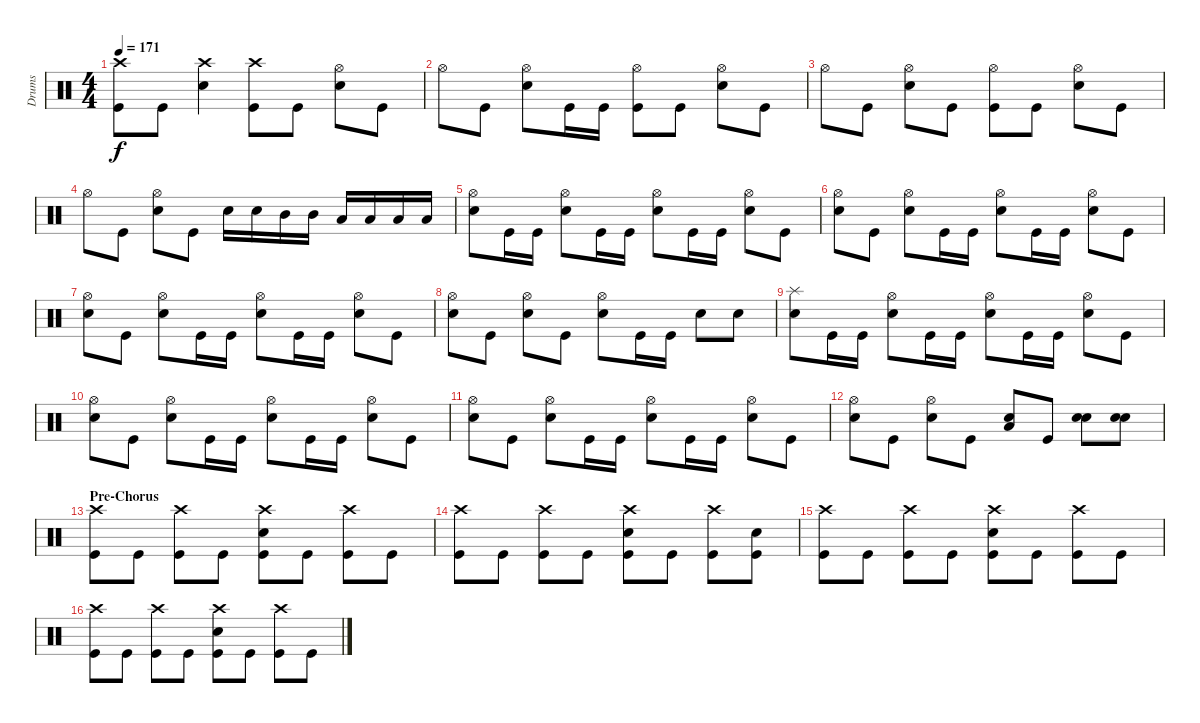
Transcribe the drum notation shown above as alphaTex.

\track ("Drums" "Drums") {instrument percussion}
\staff {score}
\articulation defaults
\ts (4 4)
\tempo 171
\clef neutral
\ks c
("Crash high (hit)" "Kick (hit)").8{dy f} "Kick (hit)".8 ("Crash high (hit)" "Snare (hit) 2").4 ("Crash high (hit)" "Kick (hit)").8 "Kick (hit)".8 ("Hi-Hat (open)" "Snare (hit) 2").8 "Kick (hit)".8 |
"Hi-Hat (open)".8 "Kick (hit)".8 ("Hi-Hat (open)" "Snare (hit) 2").8 "Kick (hit)".16 "Kick (hit)".16 ("Hi-Hat (open)" "Kick (hit)").8 "Kick (hit)".8 ("Hi-Hat (open)" "Snare (hit) 2").8 "Kick (hit)".8 |
"Hi-Hat (open)".8 "Kick (hit)".8 ("Hi-Hat (open)" "Snare (hit) 2").8 "Kick (hit)".8 ("Hi-Hat (open)" "Kick (hit)").8 "Kick (hit)".8 ("Hi-Hat (open)" "Snare (hit) 2").8 "Kick (hit)".8 |
"Hi-Hat (open)".8 "Kick (hit)".8 ("Hi-Hat (open)" "Snare (hit) 2").8 "Kick (hit)".8 "Snare (hit) 2".16 "Snare (hit) 2".16 "Mid Tom (hit)".16 "Mid Tom (hit)".16 "Low Tom (hit)".16 "Low Tom (hit)".16 "Low Floor Tom (hit)".16 "Low Floor Tom (hit)".16 |
("Hi-Hat (open)" "Snare (hit) 2").8 "Kick (hit)".16 "Kick (hit)".16 ("Hi-Hat (open)" "Snare (hit) 2").8 "Kick (hit)".16 "Kick (hit)".16 ("Hi-Hat (open)" "Snare (hit) 2").8 "Kick (hit)".16 "Kick (hit)".16 ("Hi-Hat (open)" "Snare (hit) 2").8 "Kick (hit)".8 |
("Hi-Hat (open)" "Snare (hit) 2").8 "Kick (hit)".8 ("Hi-Hat (open)" "Snare (hit) 2").8 "Kick (hit)".16 "Kick (hit)".16 ("Hi-Hat (open)" "Snare (hit) 2").8 "Kick (hit)".16 "Kick (hit)".16 ("Hi-Hat (open)" "Snare (hit) 2").8 "Kick (hit)".8 |
("Hi-Hat (open)" "Snare (hit) 2").8 "Kick (hit)".8 ("Hi-Hat (open)" "Snare (hit) 2").8 "Kick (hit)".16 "Kick (hit)".16 ("Hi-Hat (open)" "Snare (hit) 2").8 "Kick (hit)".16 "Kick (hit)".16 ("Hi-Hat (open)" "Snare (hit) 2").8 "Kick (hit)".8 |
("Hi-Hat (open)" "Snare (hit) 2").8 "Kick (hit)".8 ("Hi-Hat (open)" "Snare (hit) 2").8 "Kick (hit)".8 ("Hi-Hat (open)" "Snare (hit) 2").8 "Kick (hit)".16 "Kick (hit)".16 "Snare (hit) 2".8 "Snare (hit) 2".8 |
("Splash (hit)" "Snare (hit) 2").8 "Kick (hit)".16 "Kick (hit)".16 ("Hi-Hat (open)" "Snare (hit) 2").8 "Kick (hit)".16 "Kick (hit)".16 ("Hi-Hat (open)" "Snare (hit) 2").8 "Kick (hit)".16 "Kick (hit)".16 ("Hi-Hat (open)" "Snare (hit) 2").8 "Kick (hit)".8 |
("Hi-Hat (open)" "Snare (hit) 2").8 "Kick (hit)".8 ("Hi-Hat (open)" "Snare (hit) 2").8 "Kick (hit)".16 "Kick (hit)".16 ("Hi-Hat (open)" "Snare (hit) 2").8 "Kick (hit)".16 "Kick (hit)".16 ("Hi-Hat (open)" "Snare (hit) 2").8 "Kick (hit)".8 |
("Hi-Hat (open)" "Snare (hit) 2").8 "Kick (hit)".8 ("Hi-Hat (open)" "Snare (hit) 2").8 "Kick (hit)".16 "Kick (hit)".16 ("Hi-Hat (open)" "Snare (hit) 2").8 "Kick (hit)".16 "Kick (hit)".16 ("Hi-Hat (open)" "Snare (hit) 2").8 "Kick (hit)".8 |
("Hi-Hat (open)" "Snare (hit) 2").8 "Kick (hit)".8 ("Hi-Hat (open)" "Snare (hit) 2").8 "Kick (hit)".8 ("Low Floor Tom (hit)" "Snare (hit) 2").8 "Kick (hit)".8 ("Snare (hit) 2" "Snare (hit) 2").8 ("Snare (hit) 2" "Snare (hit) 2").8 |
\section ("" "Pre-Chorus")
("Crash high (hit)" "Kick (hit)").8 "Kick (hit)".8 ("Crash high (hit)" "Kick (hit)").8 "Kick (hit)".8 ("Crash high (hit)" "Snare (hit) 2" "Kick (hit)").8 "Kick (hit)".8 ("Crash high (hit)" "Kick (hit)").8 "Kick (hit)".8 |
("Crash high (hit)" "Kick (hit)").8 "Kick (hit)".8 ("Crash high (hit)" "Kick (hit)").8 "Kick (hit)".8 ("Crash high (hit)" "Snare (hit) 2" "Kick (hit)").8 "Kick (hit)".8 ("Crash high (hit)" "Kick (hit)").8 ("Snare (hit) 2" "Kick (hit)").8 |
("Crash high (hit)" "Kick (hit)").8 "Kick (hit)".8 ("Crash high (hit)" "Kick (hit)").8 "Kick (hit)".8 ("Crash high (hit)" "Snare (hit) 2" "Kick (hit)").8 "Kick (hit)".8 ("Crash high (hit)" "Kick (hit)").8 "Kick (hit)".8 |
("Crash high (hit)" "Kick (hit)").8 "Kick (hit)".8 ("Crash high (hit)" "Kick (hit)").8 "Kick (hit)".8 ("Crash high (hit)" "Snare (hit) 2" "Kick (hit)").8 "Kick (hit)".8 ("Crash high (hit)" "Kick (hit)").8 "Kick (hit)".8
